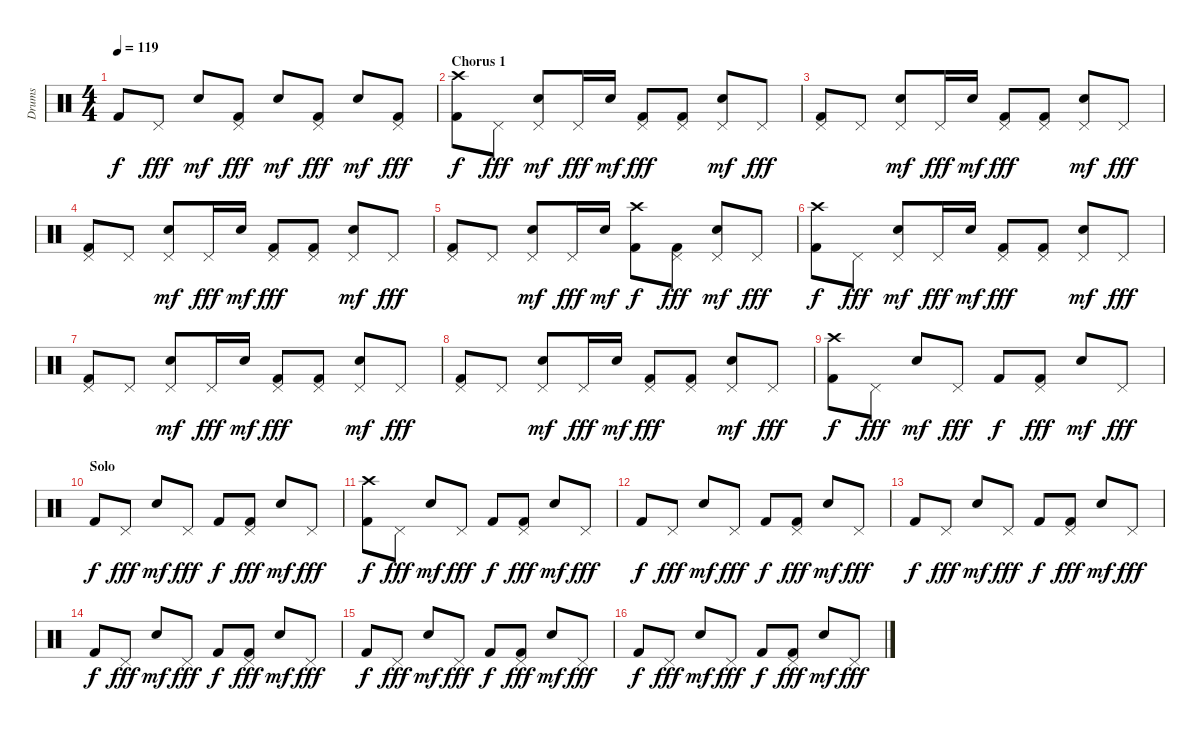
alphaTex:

\track ("Drums" "Drums") {instrument percussion}
\staff {score}
\articulation defaults
\ts (4 4)
\tempo 119
\clef neutral
\ks c "Kick (hit) 2".8{dy f} "Pedal Hi-Hat (hit)".8{dy fff} "Electric Snare (hit)".8{dy mf}
("Pedal Hi-Hat (hit)" "Kick (hit) 2").8{dy fff} "Electric Snare (hit)".8{dy mf} ("Pedal Hi-Hat (hit)" "Kick (hit) 2").8{dy fff} "Electric Snare (hit)".8{dy mf} ("Pedal Hi-Hat (hit)" "Kick (hit) 2").8{dy fff} |
\section ("" "Chorus 1")
("Crash high (hit)" "Kick (hit) 2").8{dy f} "Pedal Hi-Hat (hit)".8{dy fff} ("Pedal Hi-Hat (hit)" "Electric Snare (hit)").8{dy mf} "Pedal Hi-Hat (hit)".16{dy fff} "Electric Snare (hit)".16{dy mf} ("Pedal Hi-Hat (hit)" "Kick (hit) 2").8{dy fff} ("Pedal Hi-Hat (hit)" "Kick (hit) 2").8 ("Pedal Hi-Hat (hit)" "Electric Snare (hit)").8{dy mf} "Pedal Hi-Hat (hit)".8{dy fff} |
("Pedal Hi-Hat (hit)" "Kick (hit) 2").8 "Pedal Hi-Hat (hit)".8 ("Pedal Hi-Hat (hit)" "Electric Snare (hit)").8{dy mf} "Pedal Hi-Hat (hit)".16{dy fff} "Electric Snare (hit)".16{dy mf} ("Pedal Hi-Hat (hit)" "Kick (hit) 2").8{dy fff} ("Pedal Hi-Hat (hit)" "Kick (hit) 2").8 ("Pedal Hi-Hat (hit)" "Electric Snare (hit)").8{dy mf} "Pedal Hi-Hat (hit)".8{dy fff} |
("Pedal Hi-Hat (hit)" "Kick (hit) 2").8 "Pedal Hi-Hat (hit)".8 ("Pedal Hi-Hat (hit)" "Electric Snare (hit)").8{dy mf} "Pedal Hi-Hat (hit)".16{dy fff} "Electric Snare (hit)".16{dy mf} ("Pedal Hi-Hat (hit)" "Kick (hit) 2").8{dy fff} ("Pedal Hi-Hat (hit)" "Kick (hit) 2").8 ("Pedal Hi-Hat (hit)" "Electric Snare (hit)").8{dy mf} "Pedal Hi-Hat (hit)".8{dy fff} |
("Pedal Hi-Hat (hit)" "Kick (hit) 2").8 "Pedal Hi-Hat (hit)".8 ("Pedal Hi-Hat (hit)" "Electric Snare (hit)").8{dy mf} "Pedal Hi-Hat (hit)".16{dy fff} "Electric Snare (hit)".16{dy mf} ("Crash high (hit)" "Kick (hit) 2").8{dy f} ("Pedal Hi-Hat (hit)" "Kick (hit) 2").8{dy fff} ("Pedal Hi-Hat (hit)" "Electric Snare (hit)").8{dy mf} "Pedal Hi-Hat (hit)".8{dy fff} |
("Crash high (hit)" "Kick (hit) 2").8{dy f} "Pedal Hi-Hat (hit)".8{dy fff} ("Pedal Hi-Hat (hit)" "Electric Snare (hit)").8{dy mf} "Pedal Hi-Hat (hit)".16{dy fff} "Electric Snare (hit)".16{dy mf} ("Pedal Hi-Hat (hit)" "Kick (hit) 2").8{dy fff} ("Pedal Hi-Hat (hit)" "Kick (hit) 2").8 ("Pedal Hi-Hat (hit)" "Electric Snare (hit)").8{dy mf} "Pedal Hi-Hat (hit)".8{dy fff} |
("Pedal Hi-Hat (hit)" "Kick (hit) 2").8 "Pedal Hi-Hat (hit)".8 ("Pedal Hi-Hat (hit)" "Electric Snare (hit)").8{dy mf} "Pedal Hi-Hat (hit)".16{dy fff} "Electric Snare (hit)".16{dy mf} ("Pedal Hi-Hat (hit)" "Kick (hit) 2").8{dy fff} ("Pedal Hi-Hat (hit)" "Kick (hit) 2").8 ("Pedal Hi-Hat (hit)" "Electric Snare (hit)").8{dy mf} "Pedal Hi-Hat (hit)".8{dy fff} |
("Pedal Hi-Hat (hit)" "Kick (hit) 2").8 "Pedal Hi-Hat (hit)".8 ("Pedal Hi-Hat (hit)" "Electric Snare (hit)").8{dy mf} "Pedal Hi-Hat (hit)".16{dy fff} "Electric Snare (hit)".16{dy mf} ("Pedal Hi-Hat (hit)" "Kick (hit) 2").8{dy fff} ("Pedal Hi-Hat (hit)" "Kick (hit) 2").8 ("Pedal Hi-Hat (hit)" "Electric Snare (hit)").8{dy mf} "Pedal Hi-Hat (hit)".8{dy fff} |
("Crash high (hit)" "Kick (hit) 2").8{dy f} "Pedal Hi-Hat (hit)".8{dy fff} "Electric Snare (hit)".8{dy mf} "Pedal Hi-Hat (hit)".8{dy fff} "Kick (hit) 2".8{dy f} ("Pedal Hi-Hat (hit)" "Kick (hit) 2").8{dy fff} "Electric Snare (hit)".8{dy mf} "Pedal Hi-Hat (hit)".8{dy fff} |
\section ("" "Solo")
"Kick (hit) 2".8{dy f} "Pedal Hi-Hat (hit)".8{dy fff} "Electric Snare (hit)".8{dy mf} "Pedal Hi-Hat (hit)".8{dy fff} "Kick (hit) 2".8{dy f} ("Pedal Hi-Hat (hit)" "Kick (hit) 2").8{dy fff} "Electric Snare (hit)".8{dy mf} "Pedal Hi-Hat (hit)".8{dy fff} |
("Crash high (hit)" "Kick (hit) 2").8{dy f} "Pedal Hi-Hat (hit)".8{dy fff} "Electric Snare (hit)".8{dy mf} "Pedal Hi-Hat (hit)".8{dy fff} "Kick (hit) 2".8{dy f} ("Pedal Hi-Hat (hit)" "Kick (hit) 2").8{dy fff} "Electric Snare (hit)".8{dy mf} "Pedal Hi-Hat (hit)".8{dy fff} |
"Kick (hit) 2".8{dy f} "Pedal Hi-Hat (hit)".8{dy fff} "Electric Snare (hit)".8{dy mf} "Pedal Hi-Hat (hit)".8{dy fff} "Kick (hit) 2".8{dy f} ("Pedal Hi-Hat (hit)" "Kick (hit) 2").8{dy fff} "Electric Snare (hit)".8{dy mf} "Pedal Hi-Hat (hit)".8{dy fff} |
"Kick (hit) 2".8{dy f} "Pedal Hi-Hat (hit)".8{dy fff} "Electric Snare (hit)".8{dy mf} "Pedal Hi-Hat (hit)".8{dy fff} "Kick (hit) 2".8{dy f} ("Pedal Hi-Hat (hit)" "Kick (hit) 2").8{dy fff} "Electric Snare (hit)".8{dy mf} "Pedal Hi-Hat (hit)".8{dy fff} |
"Kick (hit) 2".8{dy f} "Pedal Hi-Hat (hit)".8{dy fff} "Electric Snare (hit)".8{dy mf} "Pedal Hi-Hat (hit)".8{dy fff} "Kick (hit) 2".8{dy f} ("Pedal Hi-Hat (hit)" "Kick (hit) 2").8{dy fff} "Electric Snare (hit)".8{dy mf} "Pedal Hi-Hat (hit)".8{dy fff} |
"Kick (hit) 2".8{dy f} "Pedal Hi-Hat (hit)".8{dy fff} "Electric Snare (hit)".8{dy mf} "Pedal Hi-Hat (hit)".8{dy fff} "Kick (hit) 2".8{dy f} ("Pedal Hi-Hat (hit)" "Kick (hit) 2").8{dy fff} "Electric Snare (hit)".8{dy mf} "Pedal Hi-Hat (hit)".8{dy fff} |
"Kick (hit) 2".8{dy f} "Pedal Hi-Hat (hit)".8{dy fff} "Electric Snare (hit)".8{dy mf} "Pedal Hi-Hat (hit)".8{dy fff} "Kick (hit) 2".8{dy f} ("Pedal Hi-Hat (hit)" "Kick (hit) 2").8{dy fff} "Electric Snare (hit)".8{dy mf} "Pedal Hi-Hat (hit)".8{dy fff}
